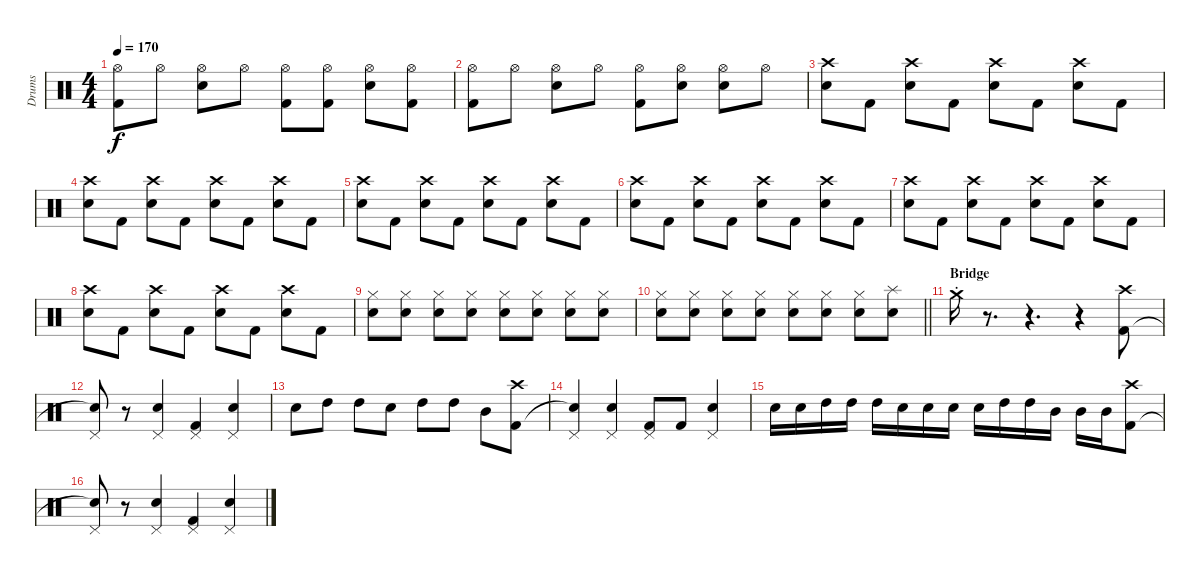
\track ("Drums" "Drums") {instrument percussion}
\staff {score}
\articulation defaults
\ts (4 4)
\tempo 170
\clef neutral
\ks c
("Hi-Hat (open)" "Kick (hit) 2").8{dy f} "Hi-Hat (open)".8 ("Hi-Hat (open)" "Electric Snare (hit)").8 "Hi-Hat (open)".8 ("Hi-Hat (open)" "Kick (hit) 2").8 ("Hi-Hat (open)" "Kick (hit) 2").8 ("Hi-Hat (open)" "Electric Snare (hit)").8 ("Hi-Hat (open)" "Kick (hit) 2").8 |
("Hi-Hat (open)" "Kick (hit) 2").8 "Hi-Hat (open)".8 ("Hi-Hat (open)" "Electric Snare (hit)").8 "Hi-Hat (open)".8 ("Hi-Hat (open)" "Kick (hit) 2").8 ("Hi-Hat (open)" "Electric Snare (hit)").8 ("Hi-Hat (open)" "Electric Snare (hit)").8 "Hi-Hat (open)".8 |
("Crash high (hit)" "Electric Snare (hit)").8 "Kick (hit) 2".8 ("Crash high (hit)" "Electric Snare (hit)").8 "Kick (hit) 2".8 ("Crash high (hit)" "Electric Snare (hit)").8 "Kick (hit) 2".8 ("Crash high (hit)" "Electric Snare (hit)").8 "Kick (hit) 2".8 |
("Crash high (hit)" "Electric Snare (hit)").8 "Kick (hit) 2".8 ("Crash high (hit)" "Electric Snare (hit)").8 "Kick (hit) 2".8 ("Crash high (hit)" "Electric Snare (hit)").8 "Kick (hit) 2".8 ("Crash high (hit)" "Electric Snare (hit)").8 "Kick (hit) 2".8 |
("Crash high (hit)" "Electric Snare (hit)").8 "Kick (hit) 2".8 ("Crash high (hit)" "Electric Snare (hit)").8 "Kick (hit) 2".8 ("Crash high (hit)" "Electric Snare (hit)").8 "Kick (hit) 2".8 ("Crash high (hit)" "Electric Snare (hit)").8 "Kick (hit) 2".8 |
("Crash high (hit)" "Electric Snare (hit)").8 "Kick (hit) 2".8 ("Crash high (hit)" "Electric Snare (hit)").8 "Kick (hit) 2".8 ("Crash high (hit)" "Electric Snare (hit)").8 "Kick (hit) 2".8 ("Crash high (hit)" "Electric Snare (hit)").8 "Kick (hit) 2".8 |
("Crash high (hit)" "Electric Snare (hit)").8 "Kick (hit) 2".8 ("Crash high (hit)" "Electric Snare (hit)").8 "Kick (hit) 2".8 ("Crash high (hit)" "Electric Snare (hit)").8 "Kick (hit) 2".8 ("Crash high (hit)" "Electric Snare (hit)").8 "Kick (hit) 2".8 |
("Crash high (hit)" "Electric Snare (hit)").8 "Kick (hit) 2".8 ("Crash high (hit)" "Electric Snare (hit)").8 "Kick (hit) 2".8 ("Crash high (hit)" "Electric Snare (hit)").8 "Kick (hit) 2".8 ("Crash high (hit)" "Electric Snare (hit)").8 "Kick (hit) 2".8 |
("Hi-Hat (closed)" "Electric Snare (hit)").8 ("Hi-Hat (closed)" "Electric Snare (hit)").8 ("Hi-Hat (closed)" "Electric Snare (hit)").8 ("Hi-Hat (closed)" "Electric Snare (hit)").8 ("Hi-Hat (closed)" "Electric Snare (hit)").8 ("Hi-Hat (closed)" "Electric Snare (hit)").8 ("Hi-Hat (closed)" "Electric Snare (hit)").8 ("Hi-Hat (closed)" "Electric Snare (hit)").8 |
\barLineRight lightlight
("Hi-Hat (closed)" "Electric Snare (hit)").8 ("Hi-Hat (closed)" "Electric Snare (hit)").8 ("Hi-Hat (closed)" "Electric Snare (hit)").8 ("Hi-Hat (closed)" "Electric Snare (hit)").8 ("Hi-Hat (closed)" "Electric Snare (hit)").8 ("Hi-Hat (closed)" "Electric Snare (hit)").8 ("Hi-Hat (closed)" "Electric Snare (hit)").8 ("Splash (hit)" "Electric Snare (hit)").8 |
\section ("" "Bridge")
"Crash medium (hit)"{st}.16 r.8{d} r.4{d} r.4 ("Crash high (hit)" "Kick (hit) 2").8 |
("Pedal Hi-Hat (hit)" "Snare (hit)"{t}).8 r.8 ("Pedal Hi-Hat (hit)" "Electric Snare (hit)").4 ("Pedal Hi-Hat (hit)" "Kick (hit) 2").4 ("Pedal Hi-Hat (hit)" "Electric Snare (hit)").4 |
"Electric Snare (hit)".8 "High Tom (hit)".8 "High Tom (hit)".8 "Electric Snare (hit)".8 "High Tom (hit)".8 "High Tom (hit)".8 "Mid Tom (hit)".8 ("Crash high (hit)" "Kick (hit) 2").8 |
("Pedal Hi-Hat (hit)" "Snare (hit)"{t}).4 ("Pedal Hi-Hat (hit)" "Electric Snare (hit)").4 ("Pedal Hi-Hat (hit)" "Kick (hit) 2").8 "Kick (hit) 2".8 ("Pedal Hi-Hat (hit)" "Electric Snare (hit)").4 |
"Electric Snare (hit)".16 "Electric Snare (hit)".16 "High Tom (hit)".16 "High Tom (hit)".16 "High Tom (hit)".16 "Electric Snare (hit)".16 "Electric Snare (hit)".16 "Electric Snare (hit)".16 "Electric Snare (hit)".16 "High Tom (hit)".16 "High Tom (hit)".16 "Mid Tom (hit)".16 "Mid Tom (hit)".16 "Mid Tom (hit)".16 ("Crash high (hit)" "Kick (hit) 2").8 |
("Pedal Hi-Hat (hit)" "Snare (hit)"{t}).8 r.8 ("Pedal Hi-Hat (hit)" "Electric Snare (hit)").4 ("Pedal Hi-Hat (hit)" "Kick (hit) 2").4 ("Pedal Hi-Hat (hit)" "Electric Snare (hit)").4
